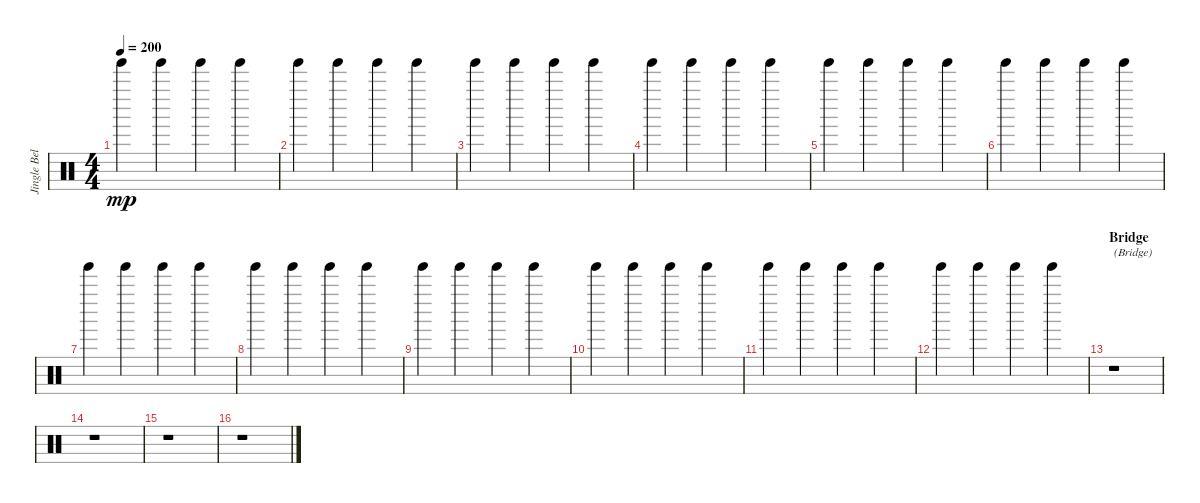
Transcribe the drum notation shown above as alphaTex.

\track ("Jingle Bells" "Jingle Bel") {instrument percussion}
\staff {score}
\articulation defaults
\ts (4 4)
\tempo 200
\clef neutral
\ks c "Tinkle Bell (hit)".4{dy mp} "Tinkle Bell (hit)".4 "Tinkle Bell (hit)".4 "Tinkle Bell (hit)".4
|
"Tinkle Bell (hit)".4 "Tinkle Bell (hit)".4 "Tinkle Bell (hit)".4 "Tinkle Bell (hit)".4 |
"Tinkle Bell (hit)".4 "Tinkle Bell (hit)".4 "Tinkle Bell (hit)".4 "Tinkle Bell (hit)".4 |
"Tinkle Bell (hit)".4 "Tinkle Bell (hit)".4 "Tinkle Bell (hit)".4 "Tinkle Bell (hit)".4 |
"Tinkle Bell (hit)".4 "Tinkle Bell (hit)".4 "Tinkle Bell (hit)".4 "Tinkle Bell (hit)".4 |
"Tinkle Bell (hit)".4 "Tinkle Bell (hit)".4 "Tinkle Bell (hit)".4 "Tinkle Bell (hit)".4 |
"Tinkle Bell (hit)".4 "Tinkle Bell (hit)".4 "Tinkle Bell (hit)".4 "Tinkle Bell (hit)".4 |
"Tinkle Bell (hit)".4 "Tinkle Bell (hit)".4 "Tinkle Bell (hit)".4 "Tinkle Bell (hit)".4 |
"Tinkle Bell (hit)".4 "Tinkle Bell (hit)".4 "Tinkle Bell (hit)".4 "Tinkle Bell (hit)".4 |
"Tinkle Bell (hit)".4 "Tinkle Bell (hit)".4 "Tinkle Bell (hit)".4 "Tinkle Bell (hit)".4 |
"Tinkle Bell (hit)".4 "Tinkle Bell (hit)".4 "Tinkle Bell (hit)".4 "Tinkle Bell (hit)".4 |
"Tinkle Bell (hit)".4 "Tinkle Bell (hit)".4 "Tinkle Bell (hit)".4 "Tinkle Bell (hit)".4 |
\section ("" "Bridge")
r.1{txt "(Bridge)"} |
r.1 |
r.1 |
r.1
